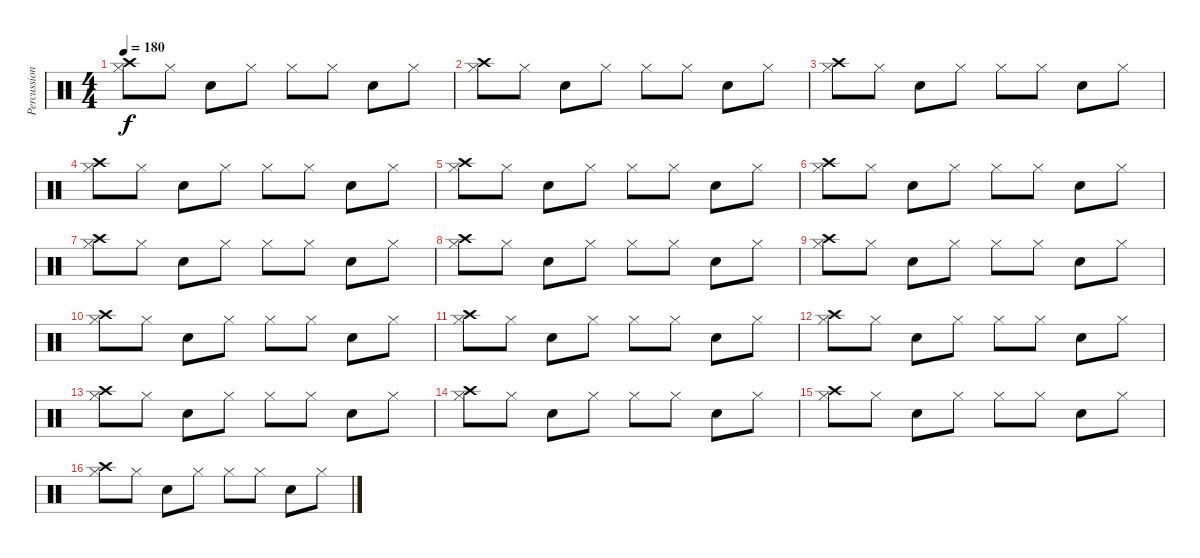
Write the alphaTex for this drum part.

\track ("Percussion" "Percussion") {instrument percussion}
\staff {score}
\articulation defaults
\ts (4 4)
\tempo 180
\clef neutral
\ks c
("Crash high (hit)" "Hi-Hat (closed)").8{dy f} "Hi-Hat (closed)".8 "Electric Snare (hit)".8 "Hi-Hat (closed)".8 "Hi-Hat (closed)".8 "Hi-Hat (closed)".8 "Electric Snare (hit)".8 "Hi-Hat (closed)".8 |
("Crash high (hit)" "Hi-Hat (closed)").8 "Hi-Hat (closed)".8 "Electric Snare (hit)".8 "Hi-Hat (closed)".8 "Hi-Hat (closed)".8 "Hi-Hat (closed)".8 "Electric Snare (hit)".8 "Hi-Hat (closed)".8 |
("Crash high (hit)" "Hi-Hat (closed)").8 "Hi-Hat (closed)".8 "Electric Snare (hit)".8 "Hi-Hat (closed)".8 "Hi-Hat (closed)".8 "Hi-Hat (closed)".8 "Electric Snare (hit)".8 "Hi-Hat (closed)".8 |
("Crash high (hit)" "Hi-Hat (closed)").8 "Hi-Hat (closed)".8 "Electric Snare (hit)".8 "Hi-Hat (closed)".8 "Hi-Hat (closed)".8 "Hi-Hat (closed)".8 "Electric Snare (hit)".8 "Hi-Hat (closed)".8 |
("Crash high (hit)" "Hi-Hat (closed)").8 "Hi-Hat (closed)".8 "Electric Snare (hit)".8 "Hi-Hat (closed)".8 "Hi-Hat (closed)".8 "Hi-Hat (closed)".8 "Electric Snare (hit)".8 "Hi-Hat (closed)".8 |
("Crash high (hit)" "Hi-Hat (closed)").8 "Hi-Hat (closed)".8 "Electric Snare (hit)".8 "Hi-Hat (closed)".8 "Hi-Hat (closed)".8 "Hi-Hat (closed)".8 "Electric Snare (hit)".8 "Hi-Hat (closed)".8 |
("Crash high (hit)" "Hi-Hat (closed)").8 "Hi-Hat (closed)".8 "Electric Snare (hit)".8 "Hi-Hat (closed)".8 "Hi-Hat (closed)".8 "Hi-Hat (closed)".8 "Electric Snare (hit)".8 "Hi-Hat (closed)".8 |
("Crash high (hit)" "Hi-Hat (closed)").8 "Hi-Hat (closed)".8 "Electric Snare (hit)".8 "Hi-Hat (closed)".8 "Hi-Hat (closed)".8 "Hi-Hat (closed)".8 "Electric Snare (hit)".8 "Hi-Hat (closed)".8 |
("Crash high (hit)" "Hi-Hat (closed)").8 "Hi-Hat (closed)".8 "Electric Snare (hit)".8 "Hi-Hat (closed)".8 "Hi-Hat (closed)".8 "Hi-Hat (closed)".8 "Electric Snare (hit)".8 "Hi-Hat (closed)".8 |
("Crash high (hit)" "Hi-Hat (closed)").8 "Hi-Hat (closed)".8 "Electric Snare (hit)".8 "Hi-Hat (closed)".8 "Hi-Hat (closed)".8 "Hi-Hat (closed)".8 "Electric Snare (hit)".8 "Hi-Hat (closed)".8 |
("Crash high (hit)" "Hi-Hat (closed)").8 "Hi-Hat (closed)".8 "Electric Snare (hit)".8 "Hi-Hat (closed)".8 "Hi-Hat (closed)".8 "Hi-Hat (closed)".8 "Electric Snare (hit)".8 "Hi-Hat (closed)".8 |
("Crash high (hit)" "Hi-Hat (closed)").8 "Hi-Hat (closed)".8 "Electric Snare (hit)".8 "Hi-Hat (closed)".8 "Hi-Hat (closed)".8 "Hi-Hat (closed)".8 "Electric Snare (hit)".8 "Hi-Hat (closed)".8 |
("Crash high (hit)" "Hi-Hat (closed)").8 "Hi-Hat (closed)".8 "Electric Snare (hit)".8 "Hi-Hat (closed)".8 "Hi-Hat (closed)".8 "Hi-Hat (closed)".8 "Electric Snare (hit)".8 "Hi-Hat (closed)".8 |
("Crash high (hit)" "Hi-Hat (closed)").8 "Hi-Hat (closed)".8 "Electric Snare (hit)".8 "Hi-Hat (closed)".8 "Hi-Hat (closed)".8 "Hi-Hat (closed)".8 "Electric Snare (hit)".8 "Hi-Hat (closed)".8 |
("Crash high (hit)" "Hi-Hat (closed)").8 "Hi-Hat (closed)".8 "Electric Snare (hit)".8 "Hi-Hat (closed)".8 "Hi-Hat (closed)".8 "Hi-Hat (closed)".8 "Electric Snare (hit)".8 "Hi-Hat (closed)".8 |
("Crash high (hit)" "Hi-Hat (closed)").8 "Hi-Hat (closed)".8 "Electric Snare (hit)".8 "Hi-Hat (closed)".8 "Hi-Hat (closed)".8 "Hi-Hat (closed)".8 "Electric Snare (hit)".8 "Hi-Hat (closed)".8
